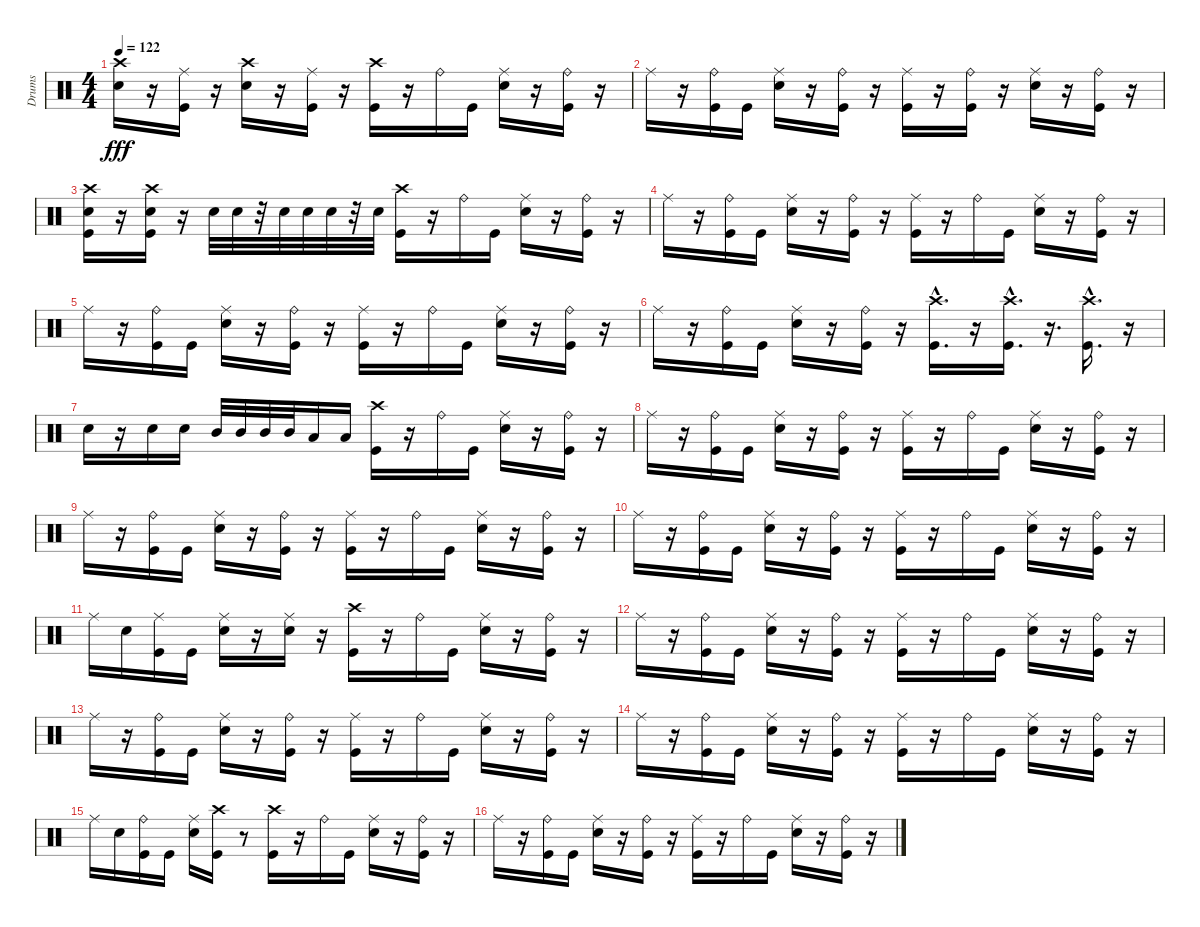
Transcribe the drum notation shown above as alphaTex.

\track ("Drums" "Drums") {instrument percussion}
\staff {score}
\articulation defaults
\ts (4 4)
\tempo 122
\clef neutral
\ks c
("Crash high (hit)" "Snare (hit) 2").16{dy fff} r.16 ("Ride (middle)" "Kick (hit)").16 r.16 ("Crash high (hit)" "Snare (hit) 2").16 r.16 ("Ride (middle)" "Kick (hit)").16 r.16 ("Crash high (hit)" "Kick (hit)").16 r.16 "Ride (bell)".16 "Kick (hit)".16 ("Snare (hit) 2" "Ride (middle)").16 r.16 ("Kick (hit)" "Ride (bell)").16 r.16 |
"Ride (middle)".16 r.16 ("Kick (hit)" "Ride (bell)").16 "Kick (hit)".16 ("Snare (hit) 2" "Ride (middle)").16 r.16 ("Kick (hit)" "Ride (bell)").16 r.16 ("Ride (middle)" "Kick (hit)").16 r.16 ("Ride (bell)" "Kick (hit)").16 r.16 ("Ride (middle)" "Snare (hit) 2").16 r.16 ("Ride (bell)" "Kick (hit)").16 r.16 |
("Crash high (hit)" "Kick (hit)" "Snare (hit) 2").16 r.16 ("Crash high (hit)" "Kick (hit)" "Snare (hit) 2").16 r.16 "Snare (hit) 2".32 "Snare (hit) 2".32 r.32 "Snare (hit) 2".32 "Snare (hit) 2".32 "Snare (hit) 2".32 r.32 "Snare (hit) 2".32 ("Crash high (hit)" "Kick (hit)").16 r.16 "Ride (bell)".16 "Kick (hit)".16 ("Snare (hit) 2" "Ride (middle)").16 r.16 ("Kick (hit)" "Ride (bell)").16 r.16 |
"Ride (middle)".16 r.16 ("Kick (hit)" "Ride (bell)").16 "Kick (hit)".16 ("Snare (hit) 2" "Ride (middle)").16 r.16 ("Kick (hit)" "Ride (bell)").16 r.16 ("Ride (middle)" "Kick (hit)").16 r.16 "Ride (bell)".16 "Kick (hit)".16 ("Ride (middle)" "Snare (hit) 2").16 r.16 ("Ride (bell)" "Kick (hit)").16 r.16 |
"Ride (middle)".16 r.16 ("Ride (bell)" "Kick (hit)").16 "Kick (hit)".16 ("Ride (middle)" "Snare (hit) 2").16 r.16 ("Ride (bell)" "Kick (hit)").16 r.16 ("Ride (middle)" "Kick (hit)").16 r.16 "Ride (bell)".16 "Kick (hit)".16 ("Ride (middle)" "Snare (hit) 2").16 r.16 ("Ride (bell)" "Kick (hit)").16 r.16 |
"Ride (middle)".16 r.16 ("Ride (bell)" "Kick (hit)").16 "Kick (hit)".16 ("Ride (middle)" "Snare (hit) 2").16 r.16 ("Ride (bell)" "Kick (hit)").16 r.16 ("Kick (hit)"{hac} "Crash high (hit)"{hac}).16{d} r.16 ("Kick (hit)"{hac} "Crash high (hit)"{hac}).16{d} r.16{d} ("Kick (hit)"{hac} "Crash high (hit)"{hac}).16{d} r.16 |
"Snare (hit) 2".16 r.16 "Snare (hit) 2".16 "Snare (hit) 2".16 "Mid Tom (hit)".32 "Mid Tom (hit)".32 "Mid Tom (hit)".32 "Mid Tom (hit)".32 "Low Tom (hit)".16 "Low Tom (hit)".16 ("Crash high (hit)" "Kick (hit)").16 r.16 "Ride (bell)".16 "Kick (hit)".16 ("Snare (hit) 2" "Ride (middle)").16 r.16 ("Kick (hit)" "Ride (bell)").16 r.16 |
"Ride (middle)".16 r.16 ("Kick (hit)" "Ride (bell)").16 "Kick (hit)".16 ("Snare (hit) 2" "Ride (middle)").16 r.16 ("Kick (hit)" "Ride (bell)").16 r.16 ("Ride (middle)" "Kick (hit)").16 r.16 "Ride (bell)".16 "Kick (hit)".16 ("Ride (middle)" "Snare (hit) 2").16 r.16 ("Ride (bell)" "Kick (hit)").16 r.16 |
"Ride (middle)".16 r.16 ("Ride (bell)" "Kick (hit)").16 "Kick (hit)".16 ("Ride (middle)" "Snare (hit) 2").16 r.16 ("Ride (bell)" "Kick (hit)").16 r.16 ("Ride (middle)" "Kick (hit)").16 r.16 "Ride (bell)".16 "Kick (hit)".16 ("Ride (middle)" "Snare (hit) 2").16 r.16 ("Ride (bell)" "Kick (hit)").16 r.16 |
"Ride (middle)".16 r.16 ("Ride (bell)" "Kick (hit)").16 "Kick (hit)".16 ("Ride (middle)" "Snare (hit) 2").16 r.16 ("Ride (bell)" "Kick (hit)").16 r.16 ("Kick (hit)" "Ride (middle)").16 r.16 "Ride (bell)".16 "Kick (hit)".16 ("Snare (hit) 2" "Ride (middle)").16 r.16 ("Kick (hit)" "Ride (bell)").16 r.16 |
"Ride (middle)".16 "Snare (hit) 2".16 ("Kick (hit)" "Ride (middle)").16 "Kick (hit)".16 ("Snare (hit) 2" "Ride (middle)").16 r.16 ("Snare (hit) 2" "Ride (middle)").16 r.16 ("Crash high (hit)" "Kick (hit)").16 r.16 "Ride (bell)".16 "Kick (hit)".16 ("Ride (middle)" "Snare (hit) 2").16 r.16 ("Ride (bell)" "Kick (hit)").16 r.16 |
"Ride (middle)".16 r.16 ("Ride (bell)" "Kick (hit)").16 "Kick (hit)".16 ("Ride (middle)" "Snare (hit) 2").16 r.16 ("Ride (bell)" "Kick (hit)").16 r.16 ("Kick (hit)" "Ride (middle)").16 r.16 "Ride (bell)".16 "Kick (hit)".16 ("Snare (hit) 2" "Ride (middle)").16 r.16 ("Kick (hit)" "Ride (bell)").16 r.16 |
"Ride (middle)".16 r.16 ("Kick (hit)" "Ride (bell)").16 "Kick (hit)".16 ("Snare (hit) 2" "Ride (middle)").16 r.16 ("Kick (hit)" "Ride (bell)").16 r.16 ("Kick (hit)" "Ride (middle)").16 r.16 "Ride (bell)".16 "Kick (hit)".16 ("Snare (hit) 2" "Ride (middle)").16 r.16 ("Kick (hit)" "Ride (bell)").16 r.16 |
"Ride (middle)".16 r.16 ("Kick (hit)" "Ride (bell)").16 "Kick (hit)".16 ("Snare (hit) 2" "Ride (middle)").16 r.16 ("Kick (hit)" "Ride (bell)").16 r.16 ("Ride (middle)" "Kick (hit)").16 r.16 "Ride (bell)".16 "Kick (hit)".16 ("Ride (middle)" "Snare (hit) 2").16 r.16 ("Ride (bell)" "Kick (hit)").16 r.16 |
"Ride (middle)".16 "Snare (hit) 2".16 ("Ride (bell)" "Kick (hit)").16 "Kick (hit)".16 ("Ride (middle)" "Snare (hit) 2").16 ("Crash high (hit)" "Kick (hit)").16 r.8 ("Crash high (hit)" "Kick (hit)").16 r.16 "Ride (bell)".16 "Kick (hit)".16 ("Snare (hit) 2" "Ride (middle)").16 r.16 ("Kick (hit)" "Ride (bell)").16 r.16 |
"Ride (middle)".16 r.16 ("Kick (hit)" "Ride (bell)").16 "Kick (hit)".16 ("Snare (hit) 2" "Ride (middle)").16 r.16 ("Kick (hit)" "Ride (bell)").16 r.16 ("Ride (middle)" "Kick (hit)").16 r.16 "Ride (bell)".16 "Kick (hit)".16 ("Ride (middle)" "Snare (hit) 2").16 r.16 ("Ride (bell)" "Kick (hit)").16 r.16
